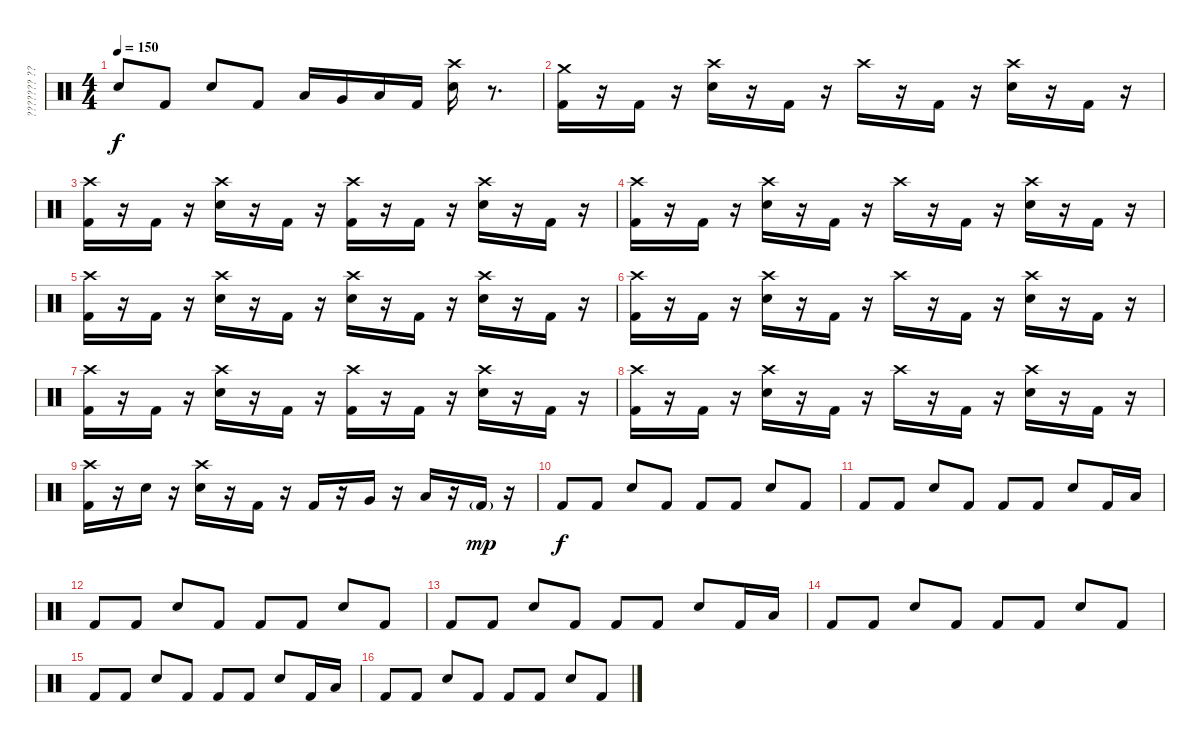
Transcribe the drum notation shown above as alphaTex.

\track ("??????? ?????????" "??????? ??") {instrument percussion}
\staff {score}
\articulation defaults
\ts (4 4)
\tempo 150
\clef neutral
\ks c "Snare (hit) 2".8{dy f} "Kick (hit) 2".8 "Electric Snare (hit)".8 "Kick (hit) 2".8 "Low Tom (hit)".16 "Very Low Tom (hit)".16 "Low Floor Tom (hit)".16 "Kick (hit) 2".16
("Crash high (hit)" "Electric Snare (hit)").16 r.8{d} |
("Crash medium (hit)" "Kick (hit) 2").16 r.16 "Kick (hit) 2".16 r.16 ("Crash high (hit)" "Electric Snare (hit)").16 r.16 "Kick (hit) 2".16 r.16 "Crash high (hit)".16 r.16 "Kick (hit) 2".16 r.16 ("Crash high (hit)" "Electric Snare (hit)").16 r.16 "Kick (hit) 2".16 r.16 |
("Crash high (hit)" "Kick (hit) 2").16 r.16 "Kick (hit) 2".16 r.16 ("Crash high (hit)" "Electric Snare (hit)").16 r.16 "Kick (hit) 2".16 r.16 ("Crash high (hit)" "Kick (hit) 2").16 r.16 "Kick (hit) 2".16 r.16 ("Crash high (hit)" "Electric Snare (hit)").16 r.16 "Kick (hit) 2".16 r.16 |
("Crash high (hit)" "Kick (hit) 2").16 r.16 "Kick (hit) 2".16 r.16 ("Crash high (hit)" "Electric Snare (hit)").16 r.16 "Kick (hit) 2".16 r.16 "Crash high (hit)".16 r.16 "Kick (hit) 2".16 r.16 ("Crash high (hit)" "Electric Snare (hit)").16 r.16 "Kick (hit) 2".16 r.16 |
("Crash high (hit)" "Kick (hit) 2").16 r.16 "Kick (hit) 2".16 r.16 ("Crash high (hit)" "Electric Snare (hit)").16 r.16 "Kick (hit) 2".16 r.16 ("Crash high (hit)" "Electric Snare (hit)").16 r.16 "Kick (hit) 2".16 r.16 ("Crash high (hit)" "Electric Snare (hit)").16 r.16 "Kick (hit) 2".16 r.16 |
("Crash high (hit)" "Kick (hit) 2").16 r.16 "Kick (hit) 2".16 r.16 ("Crash high (hit)" "Electric Snare (hit)").16 r.16 "Kick (hit) 2".16 r.16 "Crash high (hit)".16 r.16 "Kick (hit) 2".16 r.16 ("Crash high (hit)" "Electric Snare (hit)").16 r.16 "Kick (hit) 2".16 r.16 |
("Crash high (hit)" "Kick (hit) 2").16 r.16 "Kick (hit) 2".16 r.16 ("Crash high (hit)" "Electric Snare (hit)").16 r.16 "Kick (hit) 2".16 r.16 ("Crash high (hit)" "Kick (hit) 2").16 r.16 "Kick (hit) 2".16 r.16 ("Crash high (hit)" "Electric Snare (hit)").16 r.16 "Kick (hit) 2".16 r.16 |
("Crash high (hit)" "Kick (hit) 2").16 r.16 "Kick (hit) 2".16 r.16 ("Crash high (hit)" "Electric Snare (hit)").16 r.16 "Kick (hit) 2".16 r.16 "Crash high (hit)".16 r.16 "Kick (hit) 2".16 r.16 ("Crash high (hit)" "Electric Snare (hit)").16 r.16 "Kick (hit) 2".16 r.16 |
("Crash high (hit)" "Kick (hit) 2").16 r.16 "Electric Snare (hit)".16 r.16 ("Crash high (hit)" "Electric Snare (hit)").16 r.16 "Kick (hit) 2".16 r.16 "Kick (hit) 2".16 r.16 "Very Low Tom (hit)".16 r.16 "Low Floor Tom (hit)".16 r.16 "Kick (hit) 2"{g}.16{dy mp} r.16 |
"Kick (hit) 2".8{dy f} "Kick (hit) 2".8 "Electric Snare (hit)".8 "Kick (hit) 2".8 "Kick (hit) 2".8 "Kick (hit) 2".8 "Electric Snare (hit)".8 "Kick (hit) 2".8 |
"Kick (hit) 2".8 "Kick (hit) 2".8 "Electric Snare (hit)".8 "Kick (hit) 2".8 "Kick (hit) 2".8 "Kick (hit) 2".8 "Electric Snare (hit)".8 "Kick (hit) 2".16 "Low Tom (hit)".16 |
"Kick (hit) 2".8 "Kick (hit) 2".8 "Electric Snare (hit)".8 "Kick (hit) 2".8 "Kick (hit) 2".8 "Kick (hit) 2".8 "Electric Snare (hit)".8 "Kick (hit) 2".8 |
"Kick (hit) 2".8 "Kick (hit) 2".8 "Electric Snare (hit)".8 "Kick (hit) 2".8 "Kick (hit) 2".8 "Kick (hit) 2".8 "Electric Snare (hit)".8 "Kick (hit) 2".16 "Low Tom (hit)".16 |
"Kick (hit) 2".8 "Kick (hit) 2".8 "Electric Snare (hit)".8 "Kick (hit) 2".8 "Kick (hit) 2".8 "Kick (hit) 2".8 "Electric Snare (hit)".8 "Kick (hit) 2".8 |
"Kick (hit) 2".8 "Kick (hit) 2".8 "Electric Snare (hit)".8 "Kick (hit) 2".8 "Kick (hit) 2".8 "Kick (hit) 2".8 "Electric Snare (hit)".8 "Kick (hit) 2".16 "Low Tom (hit)".16 |
"Kick (hit) 2".8 "Kick (hit) 2".8 "Electric Snare (hit)".8 "Kick (hit) 2".8 "Kick (hit) 2".8 "Kick (hit) 2".8 "Electric Snare (hit)".8 "Kick (hit) 2".8
